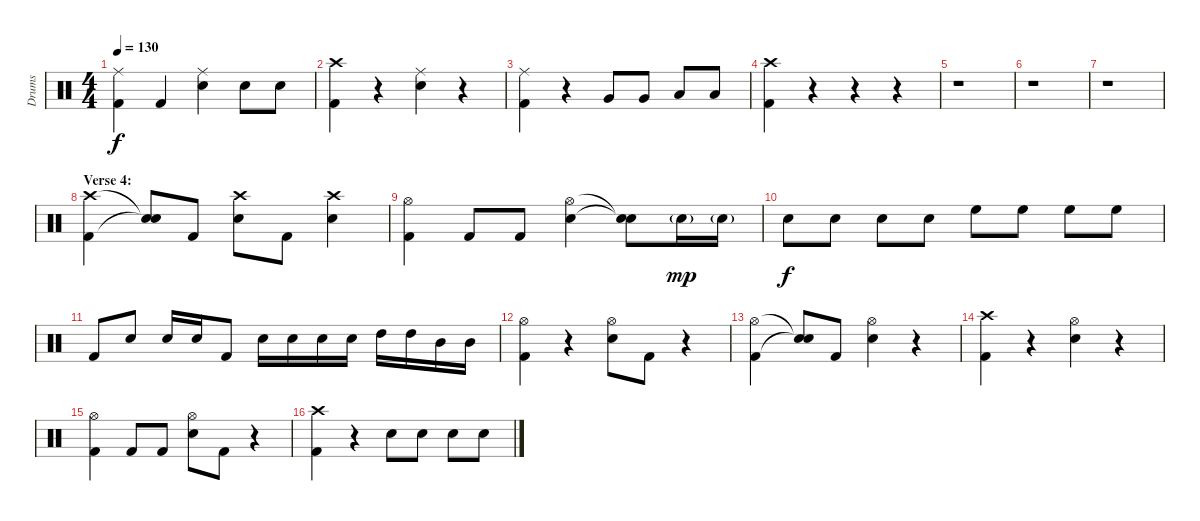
\track ("Drums" "Drums") {instrument percussion}
\staff {score}
\articulation defaults
\ts (4 4)
\tempo 130
\clef neutral
\ks c
("Ride (middle)" "Kick (hit) 2").4{dy f} "Kick (hit) 2".4 ("Ride (middle)" "Electric Snare (hit)").4 "Electric Snare (hit)".8 "Electric Snare (hit)".8 |
("Crash high (hit)" "Kick (hit) 2").4 r.4 ("Ride (middle)" "Electric Snare (hit)").4 r.4 |
("Ride (middle)" "Kick (hit) 2").4 r.4 "Very Low Tom (hit)".8 "Very Low Tom (hit)".8 "Low Floor Tom (hit)".8 "Low Floor Tom (hit)".8 |
("Crash high (hit)" "Kick (hit) 2").4 r.4 r.4 r.4 |
r.1 |
r.1 |
r.1 |
\section ("" "Verse 4:")
("Crash high (hit)" "Kick (hit) 2").4 ("Snare (hit)"{t} "Snare (hit)"{t}).8 "Kick (hit) 2".8 ("Crash high (hit)" "Electric Snare (hit)").8 "Kick (hit) 2".8 ("Crash high (hit)" "Electric Snare (hit)").4 |
("Hi-Hat (open)" "Kick (hit) 2").4 "Kick (hit) 2".8 "Kick (hit) 2".8 ("Hi-Hat (open)" "Electric Snare (hit)").4 ("Snare (hit)"{t} "Snare (hit)"{t}).8 "Electric Snare (hit)"{g}.16{dy mp} "Electric Snare (hit)"{g}.16 |
"Electric Snare (hit)".8{dy f} "Electric Snare (hit)".8 "Electric Snare (hit)".8 "Electric Snare (hit)".8 "High Floor Tom (hit)".8 "High Floor Tom (hit)".8 "High Floor Tom (hit)".8 "High Floor Tom (hit)".8 |
"Kick (hit) 2".8 "Electric Snare (hit)".8 "Electric Snare (hit)".16 "Electric Snare (hit)".16 "Kick (hit) 2".8 "Electric Snare (hit)".16 "Electric Snare (hit)".16 "Electric Snare (hit)".16 "Electric Snare (hit)".16 "High Tom (hit)".16 "High Tom (hit)".16 "Mid Tom (hit)".16 "Mid Tom (hit)".16 |
("Hi-Hat (open)" "Kick (hit) 2").4 r.4 ("Hi-Hat (open)" "Electric Snare (hit)").8 "Kick (hit) 2".8 r.4 |
("Hi-Hat (open)" "Kick (hit) 2").4 ("Snare (hit)"{t} "Snare (hit)"{t}).8 "Kick (hit) 2".8 ("Hi-Hat (open)" "Electric Snare (hit)").4 r.4 |
("Crash high (hit)" "Kick (hit) 2").4 r.4 ("Hi-Hat (open)" "Electric Snare (hit)").4 r.4 |
("Hi-Hat (open)" "Kick (hit) 2").4 "Kick (hit) 2".8 "Kick (hit) 2".8 ("Hi-Hat (open)" "Electric Snare (hit)").8 "Kick (hit) 2".8 r.4 |
("Crash high (hit)" "Kick (hit) 2").4 r.4 "Electric Snare (hit)".8 "Electric Snare (hit)".8 "Electric Snare (hit)".8 "Electric Snare (hit)".8
